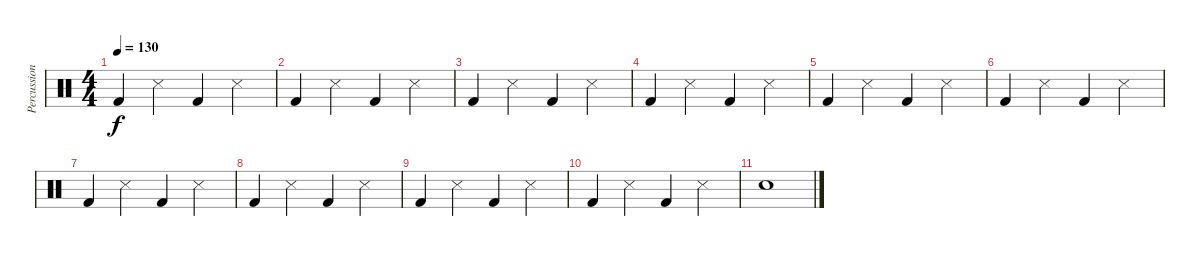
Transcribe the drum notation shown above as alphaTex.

\track ("Percussions" "Percussion") {instrument percussion}
\staff {score}
\articulation defaults
\ts (4 4)
\tempo 130
\clef neutral
\ks c "Kick (hit) 2".4{dy f} "Snare (side stick) 3".4 "Kick (hit) 2".4 "Snare (side stick) 3".4
|
"Kick (hit) 2".4 "Snare (side stick) 3".4 "Kick (hit) 2".4 "Snare (side stick) 3".4 |
"Kick (hit) 2".4 "Snare (side stick) 3".4 "Kick (hit) 2".4 "Snare (side stick) 3".4 |
"Kick (hit) 2".4 "Snare (side stick) 3".4 "Kick (hit) 2".4 "Snare (side stick) 3".4 |
"Kick (hit) 2".4 "Snare (side stick) 3".4 "Kick (hit) 2".4 "Snare (side stick) 3".4 |
"Kick (hit) 2".4 "Snare (side stick) 3".4 "Kick (hit) 2".4 "Snare (side stick) 3".4 |
"Kick (hit) 2".4 "Snare (side stick) 3".4 "Kick (hit) 2".4 "Snare (side stick) 3".4 |
"Kick (hit) 2".4 "Snare (side stick) 3".4 "Kick (hit) 2".4 "Snare (side stick) 3".4 |
"Kick (hit) 2".4 "Snare (side stick) 3".4 "Kick (hit) 2".4 "Snare (side stick) 3".4 |
"Kick (hit) 2".4 "Snare (side stick) 3".4 "Kick (hit) 2".4 "Snare (side stick) 3".4 |
"Electric Snare (hit)".1
